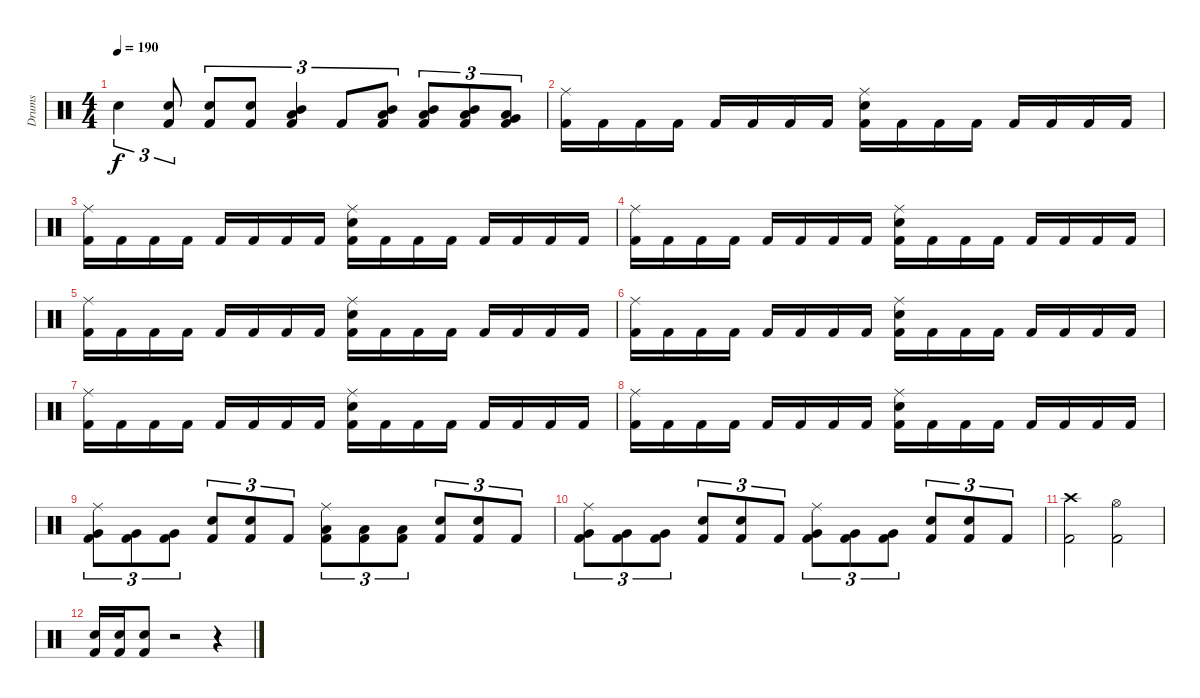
\track ("Drums" "Drums") {instrument percussion}
\staff {score}
\articulation defaults
\ts (4 4)
\tempo 190
\clef neutral
\ks c "Snare (hit) 2".4{tu (3 2) dy f}
("Snare (hit) 2" "Kick (hit) 2").8{tu (3 2)} ("Snare (hit) 2" "Kick (hit) 2").8{tu (3 2)} ("Snare (hit) 2" "Kick (hit) 2").8{tu (3 2)} ("Mid Tom (hit)" "Low Tom (hit)" "Kick (hit) 2").4{tu (3 2)} "Kick (hit) 2".8{tu (3 2)} ("Mid Tom (hit)" "Low Tom (hit)" "Kick (hit) 2").8{tu (3 2)} ("Mid Tom (hit)" "Low Tom (hit)" "Kick (hit) 2").8{tu (3 2)} ("Mid Tom (hit)" "Low Tom (hit)" "Kick (hit) 2").8{tu (3 2)} ("Low Tom (hit)" "Very Low Tom (hit)" "Kick (hit) 2").8{tu (3 2)} |
("Ride (middle)" "Kick (hit) 2").16 "Kick (hit) 2".16 "Kick (hit) 2".16 "Kick (hit) 2".16 "Kick (hit) 2".16 "Kick (hit) 2".16 "Kick (hit) 2".16 "Kick (hit) 2".16 ("Ride (middle)" "Snare (hit) 2" "Kick (hit) 2").16 "Kick (hit) 2".16 "Kick (hit) 2".16 "Kick (hit) 2".16 "Kick (hit) 2".16 "Kick (hit) 2".16 "Kick (hit) 2".16 "Kick (hit) 2".16 |
("Ride (middle)" "Kick (hit) 2").16 "Kick (hit) 2".16 "Kick (hit) 2".16 "Kick (hit) 2".16 "Kick (hit) 2".16 "Kick (hit) 2".16 "Kick (hit) 2".16 "Kick (hit) 2".16 ("Ride (middle)" "Snare (hit) 2" "Kick (hit) 2").16 "Kick (hit) 2".16 "Kick (hit) 2".16 "Kick (hit) 2".16 "Kick (hit) 2".16 "Kick (hit) 2".16 "Kick (hit) 2".16 "Kick (hit) 2".16 |
("Ride (middle)" "Kick (hit) 2").16 "Kick (hit) 2".16 "Kick (hit) 2".16 "Kick (hit) 2".16 "Kick (hit) 2".16 "Kick (hit) 2".16 "Kick (hit) 2".16 "Kick (hit) 2".16 ("Ride (middle)" "Snare (hit) 2" "Kick (hit) 2").16 "Kick (hit) 2".16 "Kick (hit) 2".16 "Kick (hit) 2".16 "Kick (hit) 2".16 "Kick (hit) 2".16 "Kick (hit) 2".16 "Kick (hit) 2".16 |
("Ride (middle)" "Kick (hit) 2").16 "Kick (hit) 2".16 "Kick (hit) 2".16 "Kick (hit) 2".16 "Kick (hit) 2".16 "Kick (hit) 2".16 "Kick (hit) 2".16 "Kick (hit) 2".16 ("Ride (middle)" "Snare (hit) 2" "Kick (hit) 2").16 "Kick (hit) 2".16 "Kick (hit) 2".16 "Kick (hit) 2".16 "Kick (hit) 2".16 "Kick (hit) 2".16 "Kick (hit) 2".16 "Kick (hit) 2".16 |
("Ride (middle)" "Kick (hit) 2").16 "Kick (hit) 2".16 "Kick (hit) 2".16 "Kick (hit) 2".16 "Kick (hit) 2".16 "Kick (hit) 2".16 "Kick (hit) 2".16 "Kick (hit) 2".16 ("Ride (middle)" "Snare (hit) 2" "Kick (hit) 2").16 "Kick (hit) 2".16 "Kick (hit) 2".16 "Kick (hit) 2".16 "Kick (hit) 2".16 "Kick (hit) 2".16 "Kick (hit) 2".16 "Kick (hit) 2".16 |
("Ride (middle)" "Kick (hit) 2").16 "Kick (hit) 2".16 "Kick (hit) 2".16 "Kick (hit) 2".16 "Kick (hit) 2".16 "Kick (hit) 2".16 "Kick (hit) 2".16 "Kick (hit) 2".16 ("Ride (middle)" "Snare (hit) 2" "Kick (hit) 2").16 "Kick (hit) 2".16 "Kick (hit) 2".16 "Kick (hit) 2".16 "Kick (hit) 2".16 "Kick (hit) 2".16 "Kick (hit) 2".16 "Kick (hit) 2".16 |
("Ride (middle)" "Kick (hit) 2").16 "Kick (hit) 2".16 "Kick (hit) 2".16 "Kick (hit) 2".16 "Kick (hit) 2".16 "Kick (hit) 2".16 "Kick (hit) 2".16 "Kick (hit) 2".16 ("Ride (middle)" "Snare (hit) 2" "Kick (hit) 2").16 "Kick (hit) 2".16 "Kick (hit) 2".16 "Kick (hit) 2".16 "Kick (hit) 2".16 "Kick (hit) 2".16 "Kick (hit) 2".16 "Kick (hit) 2".16 |
("Ride (middle)" "Very Low Tom (hit)" "Kick (hit) 2").8{tu (3 2)} ("Very Low Tom (hit)" "Kick (hit) 2").8{tu (3 2)} ("Very Low Tom (hit)" "Kick (hit) 2").8{tu (3 2)} ("Snare (hit) 2" "Kick (hit) 2").8{tu (3 2)} ("Snare (hit) 2" "Kick (hit) 2").8{tu (3 2)} "Kick (hit) 2".8{tu (3 2)} ("Ride (middle)" "Low Tom (hit)" "Kick (hit) 2").8{tu (3 2)} ("Low Tom (hit)" "Kick (hit) 2").8{tu (3 2)} ("Low Tom (hit)" "Kick (hit) 2").8{tu (3 2)} ("Snare (hit) 2" "Kick (hit) 2").8{tu (3 2)} ("Snare (hit) 2" "Kick (hit) 2").8{tu (3 2)} "Kick (hit) 2".8{tu (3 2)} |
("Ride (middle)" "Very Low Tom (hit)" "Kick (hit) 2").8{tu (3 2)} ("Very Low Tom (hit)" "Kick (hit) 2").8{tu (3 2)} ("Very Low Tom (hit)" "Kick (hit) 2").8{tu (3 2)} ("Snare (hit) 2" "Kick (hit) 2").8{tu (3 2)} ("Snare (hit) 2" "Kick (hit) 2").8{tu (3 2)} "Kick (hit) 2".8{tu (3 2)} ("Ride (middle)" "Very Low Tom (hit)" "Kick (hit) 2").8{tu (3 2)} ("Very Low Tom (hit)" "Kick (hit) 2").8{tu (3 2)} ("Very Low Tom (hit)" "Kick (hit) 2").8{tu (3 2)} ("Snare (hit) 2" "Kick (hit) 2").8{tu (3 2)} ("Snare (hit) 2" "Kick (hit) 2").8{tu (3 2)} "Kick (hit) 2".8{tu (3 2)} |
("Crash high (hit)" "Kick (hit) 2").2 ("Hi-Hat (open)" "Kick (hit) 2").2 |
("Snare (hit) 2" "Kick (hit) 2").16 ("Snare (hit) 2" "Kick (hit) 2").16 ("Snare (hit) 2" "Kick (hit) 2").8 r.2 r.4
